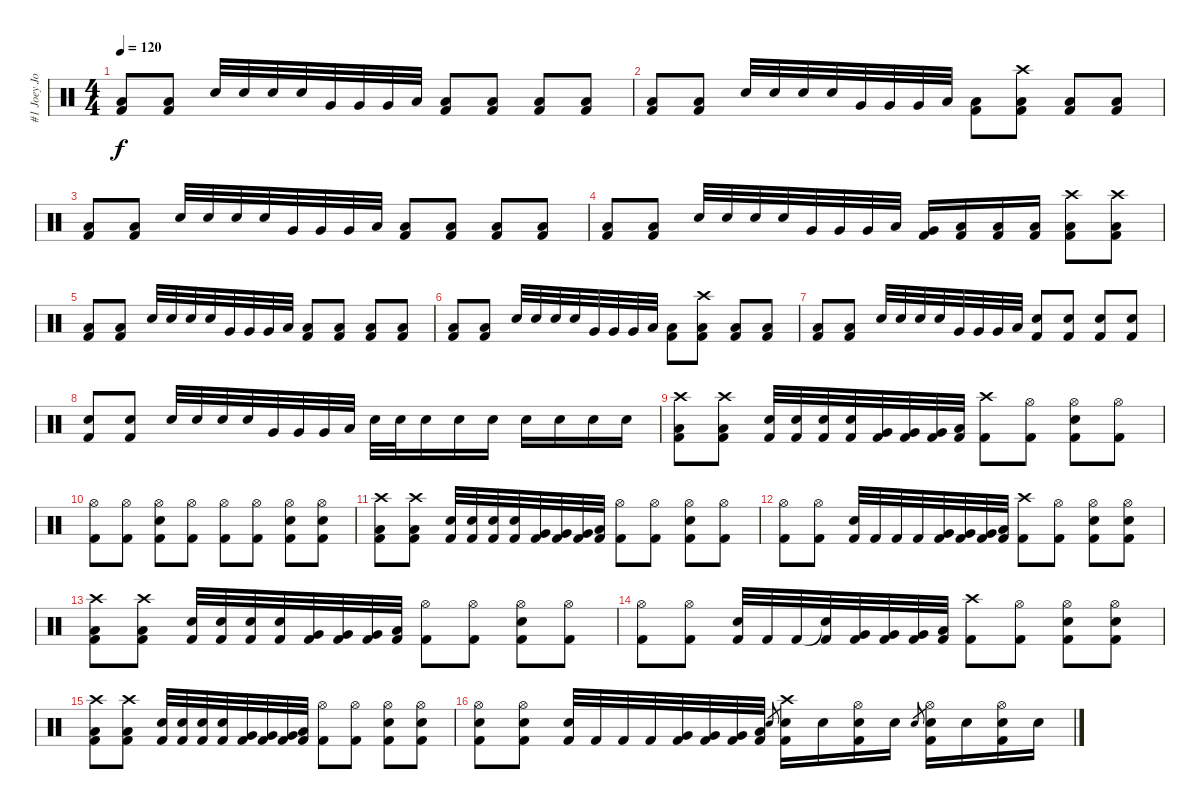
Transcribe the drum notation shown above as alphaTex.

\track ("#1 Joey Jordison" "#1 Joey Jo") {instrument percussion}
\staff {score}
\articulation defaults
\ts (4 4)
\tempo 120
\clef neutral
\ks c
("Low Floor Tom (hit)" "Kick (hit) 2").8{dy f} ("Low Floor Tom (hit)" "Kick (hit) 2").8 "Electric Snare (hit)".32 "Electric Snare (hit)".32 "Electric Snare (hit)".32 "Electric Snare (hit)".32 "Very Low Tom (hit)".32 "Very Low Tom (hit)".32 "Very Low Tom (hit)".32 "Low Floor Tom (hit)".32 ("Low Floor Tom (hit)" "Kick (hit) 2").8 ("Low Floor Tom (hit)" "Kick (hit) 2").8 ("Low Floor Tom (hit)" "Kick (hit) 2").8 ("Low Floor Tom (hit)" "Kick (hit) 2").8 |
("Low Floor Tom (hit)" "Kick (hit) 2").8 ("Low Floor Tom (hit)" "Kick (hit) 2").8 "Electric Snare (hit)".32 "Electric Snare (hit)".32 "Electric Snare (hit)".32 "Electric Snare (hit)".32 "Very Low Tom (hit)".32 "Very Low Tom (hit)".32 "Very Low Tom (hit)".32 "Low Floor Tom (hit)".32 ("Low Floor Tom (hit)" "Kick (hit) 2").8 ("Crash high (hit)" "Low Floor Tom (hit)" "Kick (hit) 2").8 ("Low Floor Tom (hit)" "Kick (hit) 2").8 ("Low Floor Tom (hit)" "Kick (hit) 2").8 |
("Low Floor Tom (hit)" "Kick (hit) 2").8 ("Low Floor Tom (hit)" "Kick (hit) 2").8 "Electric Snare (hit)".32 "Electric Snare (hit)".32 "Electric Snare (hit)".32 "Electric Snare (hit)".32 "Very Low Tom (hit)".32 "Very Low Tom (hit)".32 "Very Low Tom (hit)".32 "Low Floor Tom (hit)".32 ("Low Floor Tom (hit)" "Kick (hit) 2").8 ("Low Floor Tom (hit)" "Kick (hit) 2").8 ("Low Floor Tom (hit)" "Kick (hit) 2").8 ("Low Floor Tom (hit)" "Kick (hit) 2").8 |
("Low Floor Tom (hit)" "Kick (hit) 2").8 ("Low Floor Tom (hit)" "Kick (hit) 2").8 "Electric Snare (hit)".32 "Electric Snare (hit)".32 "Electric Snare (hit)".32 "Electric Snare (hit)".32 "Very Low Tom (hit)".32 "Very Low Tom (hit)".32 "Very Low Tom (hit)".32 "Low Floor Tom (hit)".32 ("Very Low Tom (hit)" "Kick (hit) 2").16 ("Low Floor Tom (hit)" "Kick (hit) 2").16 ("Low Floor Tom (hit)" "Kick (hit) 2").16 ("Low Floor Tom (hit)" "Kick (hit) 2").16 ("Crash high (hit)" "Low Floor Tom (hit)" "Kick (hit) 2").8 ("Crash high (hit)" "Low Floor Tom (hit)" "Kick (hit) 2").8 |
("Low Floor Tom (hit)" "Kick (hit) 2").8 ("Low Floor Tom (hit)" "Kick (hit) 2").8 "Electric Snare (hit)".32 "Electric Snare (hit)".32 "Electric Snare (hit)".32 "Electric Snare (hit)".32 "Very Low Tom (hit)".32 "Very Low Tom (hit)".32 "Very Low Tom (hit)".32 "Low Floor Tom (hit)".32 ("Low Floor Tom (hit)" "Kick (hit) 2").8 ("Low Floor Tom (hit)" "Kick (hit) 2").8 ("Low Floor Tom (hit)" "Kick (hit) 2").8 ("Low Floor Tom (hit)" "Kick (hit) 2").8 |
("Low Floor Tom (hit)" "Kick (hit) 2").8 ("Low Floor Tom (hit)" "Kick (hit) 2").8 "Electric Snare (hit)".32 "Electric Snare (hit)".32 "Electric Snare (hit)".32 "Electric Snare (hit)".32 "Very Low Tom (hit)".32 "Very Low Tom (hit)".32 "Very Low Tom (hit)".32 "Low Floor Tom (hit)".32 ("Low Floor Tom (hit)" "Kick (hit) 2").8 ("Crash high (hit)" "Low Floor Tom (hit)" "Kick (hit) 2").8 ("Low Floor Tom (hit)" "Kick (hit) 2").8 ("Low Floor Tom (hit)" "Kick (hit) 2").8 |
("Low Floor Tom (hit)" "Kick (hit) 2").8 ("Low Floor Tom (hit)" "Kick (hit) 2").8 "Electric Snare (hit)".32 "Electric Snare (hit)".32 "Electric Snare (hit)".32 "Electric Snare (hit)".32 "Very Low Tom (hit)".32 "Very Low Tom (hit)".32 "Very Low Tom (hit)".32 "Low Floor Tom (hit)".32 ("Electric Snare (hit)" "Kick (hit) 2").8 ("Electric Snare (hit)" "Kick (hit) 2").8 ("Electric Snare (hit)" "Kick (hit) 2").8 ("Electric Snare (hit)" "Kick (hit) 2").8 |
("Electric Snare (hit)" "Kick (hit) 2").8 ("Electric Snare (hit)" "Kick (hit) 2").8 "Electric Snare (hit)".32 "Electric Snare (hit)".32 "Electric Snare (hit)".32 "Electric Snare (hit)".32 "Very Low Tom (hit)".32 "Very Low Tom (hit)".32 "Very Low Tom (hit)".32 "Low Floor Tom (hit)".32 "Electric Snare (hit)".32 "Electric Snare (hit)".32 "Electric Snare (hit)".16 "Electric Snare (hit)".16 "Electric Snare (hit)".16 "Electric Snare (hit)".16 "Electric Snare (hit)".16 "Electric Snare (hit)".16 "Electric Snare (hit)".16 |
("Crash high (hit)" "Low Floor Tom (hit)" "Kick (hit) 2").8 ("Crash high (hit)" "Low Floor Tom (hit)" "Kick (hit) 2").8 ("Electric Snare (hit)" "Kick (hit) 2").32 ("Electric Snare (hit)" "Kick (hit) 2").32 ("Electric Snare (hit)" "Kick (hit) 2").32 ("Electric Snare (hit)" "Kick (hit) 2").32 ("Very Low Tom (hit)" "Kick (hit) 2").32 ("Very Low Tom (hit)" "Kick (hit) 2").32 ("Very Low Tom (hit)" "Kick (hit) 2").32 ("Low Floor Tom (hit)" "Kick (hit) 2").32 ("Crash high (hit)" "Kick (hit) 2").8 ("Hi-Hat (open)" "Kick (hit) 2").8 ("Hi-Hat (open)" "Electric Snare (hit)" "Kick (hit) 2").8 ("Hi-Hat (open)" "Kick (hit) 2").8 |
("Hi-Hat (open)" "Kick (hit) 2").8 ("Hi-Hat (open)" "Kick (hit) 2").8 ("Hi-Hat (open)" "Electric Snare (hit)" "Kick (hit) 2").8 ("Hi-Hat (open)" "Kick (hit) 2").8 ("Hi-Hat (open)" "Kick (hit) 2").8 ("Hi-Hat (open)" "Kick (hit) 2").8 ("Hi-Hat (open)" "Electric Snare (hit)" "Kick (hit) 2").8 ("Hi-Hat (open)" "Electric Snare (hit)" "Kick (hit) 2").8 |
("Crash high (hit)" "Low Floor Tom (hit)" "Kick (hit) 2").8 ("Crash high (hit)" "Low Floor Tom (hit)" "Kick (hit) 2").8 ("Electric Snare (hit)" "Kick (hit) 2").32 ("Electric Snare (hit)" "Kick (hit) 2").32 ("Electric Snare (hit)" "Kick (hit) 2").32 ("Electric Snare (hit)" "Kick (hit) 2").32 ("Very Low Tom (hit)" "Kick (hit) 2").32 ("Very Low Tom (hit)" "Kick (hit) 2").32 ("Very Low Tom (hit)" "Kick (hit) 2").32 ("Low Floor Tom (hit)" "Kick (hit) 2").32 ("Hi-Hat (open)" "Kick (hit) 2").8 ("Hi-Hat (open)" "Kick (hit) 2").8 ("Hi-Hat (open)" "Electric Snare (hit)" "Kick (hit) 2").8 ("Hi-Hat (open)" "Kick (hit) 2").8 |
("Hi-Hat (open)" "Kick (hit) 2").8 ("Hi-Hat (open)" "Kick (hit) 2").8 ("Electric Snare (hit)" "Kick (hit) 2").32 "Kick (hit) 2".32 "Kick (hit) 2".32 "Kick (hit) 2".32 ("Very Low Tom (hit)" "Kick (hit) 2").32 ("Very Low Tom (hit)" "Kick (hit) 2").32 ("Very Low Tom (hit)" "Kick (hit) 2").32 ("Low Floor Tom (hit)" "Kick (hit) 2").32 ("Crash high (hit)" "Kick (hit) 2").8 ("Hi-Hat (open)" "Kick (hit) 2").8 ("Hi-Hat (open)" "Electric Snare (hit)" "Kick (hit) 2").8 ("Hi-Hat (open)" "Electric Snare (hit)" "Kick (hit) 2").8 |
("Crash high (hit)" "Low Floor Tom (hit)" "Kick (hit) 2").8 ("Crash high (hit)" "Low Floor Tom (hit)" "Kick (hit) 2").8 ("Electric Snare (hit)" "Kick (hit) 2").32 ("Electric Snare (hit)" "Kick (hit) 2").32 ("Electric Snare (hit)" "Kick (hit) 2").32 ("Electric Snare (hit)" "Kick (hit) 2").32 ("Very Low Tom (hit)" "Kick (hit) 2").32 ("Very Low Tom (hit)" "Kick (hit) 2").32 ("Very Low Tom (hit)" "Kick (hit) 2").32 ("Low Floor Tom (hit)" "Kick (hit) 2").32 ("Hi-Hat (open)" "Kick (hit) 2").8 ("Hi-Hat (open)" "Kick (hit) 2").8 ("Hi-Hat (open)" "Electric Snare (hit)" "Kick (hit) 2").8 ("Hi-Hat (open)" "Kick (hit) 2").8 |
("Hi-Hat (open)" "Kick (hit) 2").8 ("Hi-Hat (open)" "Kick (hit) 2").8 ("Electric Snare (hit)" "Kick (hit) 2").32 "Kick (hit) 2".32 "Kick (hit) 2".32 ("Snare (hit)"{t} "Kick (hit) 2").32 ("Very Low Tom (hit)" "Kick (hit) 2").32 ("Very Low Tom (hit)" "Kick (hit) 2").32 ("Very Low Tom (hit)" "Kick (hit) 2").32 ("Low Floor Tom (hit)" "Kick (hit) 2").32 ("Crash high (hit)" "Kick (hit) 2").8 ("Hi-Hat (open)" "Kick (hit) 2").8 ("Hi-Hat (open)" "Electric Snare (hit)" "Kick (hit) 2").8 ("Hi-Hat (open)" "Electric Snare (hit)" "Kick (hit) 2").8 |
("Crash high (hit)" "Low Floor Tom (hit)" "Kick (hit) 2").8 ("Crash high (hit)" "Low Floor Tom (hit)" "Kick (hit) 2").8 ("Electric Snare (hit)" "Kick (hit) 2").32 ("Electric Snare (hit)" "Kick (hit) 2").32 ("Electric Snare (hit)" "Kick (hit) 2").32 ("Electric Snare (hit)" "Kick (hit) 2").32 ("Very Low Tom (hit)" "Kick (hit) 2").32 ("Very Low Tom (hit)" "Kick (hit) 2").32 ("Very Low Tom (hit)" "Kick (hit) 2").32 ("Low Floor Tom (hit)" "Kick (hit) 2").32 ("Hi-Hat (open)" "Kick (hit) 2").8 ("Hi-Hat (open)" "Kick (hit) 2").8 ("Hi-Hat (open)" "Electric Snare (hit)" "Kick (hit) 2").8 ("Hi-Hat (open)" "Electric Snare (hit)" "Kick (hit) 2").8 |
("Hi-Hat (open)" "Electric Snare (hit)" "Kick (hit) 2").8 ("Hi-Hat (open)" "Electric Snare (hit)" "Kick (hit) 2").8 ("Electric Snare (hit)" "Kick (hit) 2").32 "Kick (hit) 2".32 "Kick (hit) 2".32 "Kick (hit) 2".32 ("Very Low Tom (hit)" "Kick (hit) 2").32 ("Very Low Tom (hit)" "Kick (hit) 2").32 ("Very Low Tom (hit)" "Kick (hit) 2").32 ("Low Floor Tom (hit)" "Kick (hit) 2").32 "Electric Snare (hit)".8{gr} ("Crash high (hit)" "Electric Snare (hit)" "Kick (hit) 2").16 "Electric Snare (hit)".16 ("Hi-Hat (open)" "Electric Snare (hit)" "Kick (hit) 2").16 "Electric Snare (hit)".16 "Electric Snare (hit)".8{gr} ("Hi-Hat (open)" "Electric Snare (hit)" "Kick (hit) 2").16 "Electric Snare (hit)".16 ("Hi-Hat (open)" "Electric Snare (hit)" "Kick (hit) 2").16 "Electric Snare (hit)".16
